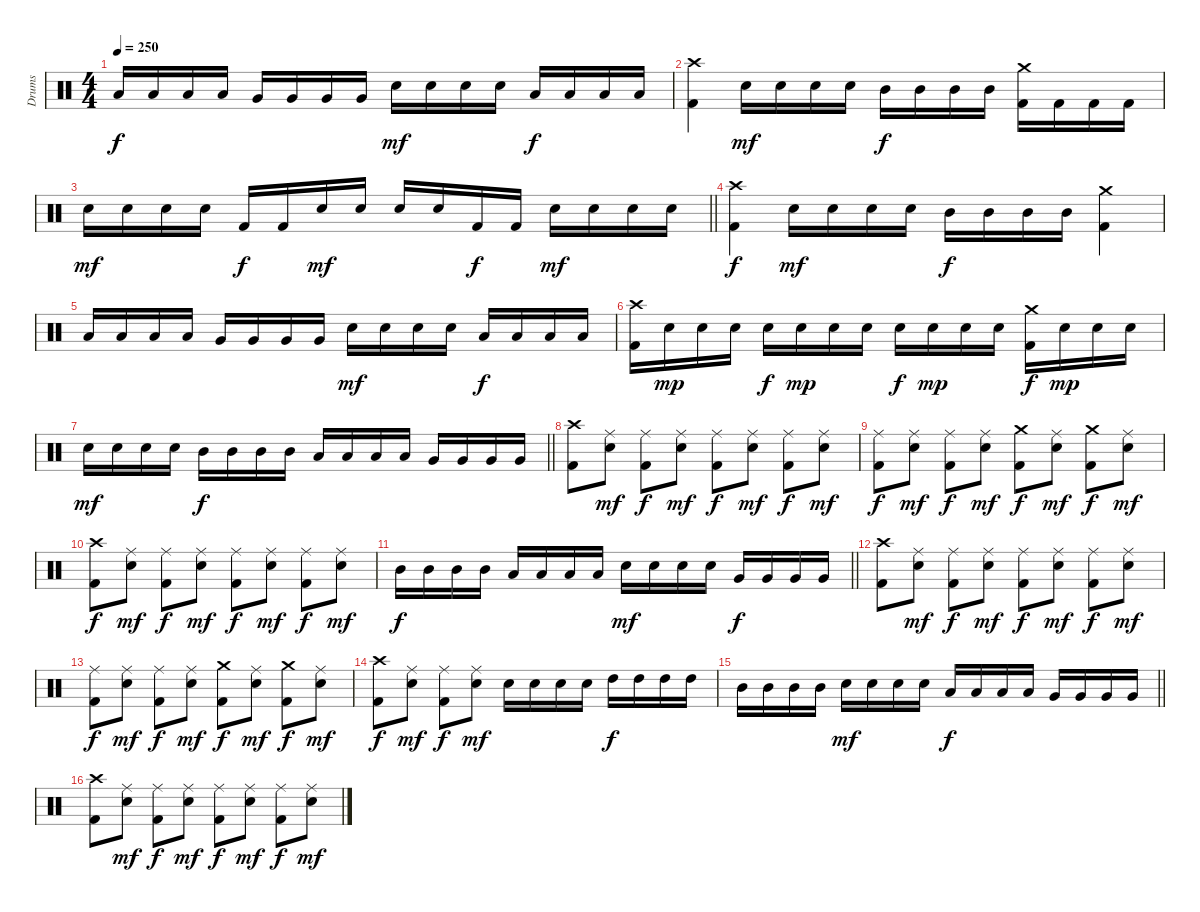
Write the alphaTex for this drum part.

\track ("Drums" "Drums") {instrument percussion}
\staff {score}
\articulation defaults
\ts (4 4)
\tempo 250
\clef neutral
\ks c "Low Tom (hit)".16{dy f} "Low Tom (hit)".16 "Low Tom (hit)".16 "Low Tom (hit)".16 "Very Low Tom (hit)".16 "Very Low Tom (hit)".16 "Very Low Tom (hit)".16 "Very Low Tom (hit)".16 "Electric Snare (hit)".16{dy mf} "Electric Snare (hit)".16 "Electric Snare (hit)".16 "Electric Snare (hit)".16 "Low Floor Tom (hit)".16{dy f} "Low Floor Tom (hit)".16 "Low Floor Tom (hit)".16 "Low Floor Tom (hit)".16
|
("Crash high (hit)" "Kick (hit) 2").4 "Electric Snare (hit)".16{dy mf} "Electric Snare (hit)".16 "Electric Snare (hit)".16 "Electric Snare (hit)".16 "Mid Tom (hit)".16{dy f} "Mid Tom (hit)".16 "Mid Tom (hit)".16 "Mid Tom (hit)".16 ("Crash medium (hit)" "Kick (hit) 2").16 "Kick (hit) 2".16 "Kick (hit) 2".16 "Kick (hit) 2".16 |
\barLineRight lightlight "Electric Snare (hit)".16{dy mf} "Electric Snare (hit)".16 "Electric Snare (hit)".16 "Electric Snare (hit)".16 "Kick (hit) 2".16{dy f} "Kick (hit) 2".16 "Electric Snare (hit)".16{dy mf} "Electric Snare (hit)".16 "Electric Snare (hit)".16 "Electric Snare (hit)".16 "Kick (hit) 2".16{dy f} "Kick (hit) 2".16 "Electric Snare (hit)".16{dy mf} "Electric Snare (hit)".16 "Electric Snare (hit)".16 "Electric Snare (hit)".16
|
("Crash high (hit)" "Kick (hit) 2").4{dy f} "Electric Snare (hit)".16{dy mf} "Electric Snare (hit)".16 "Electric Snare (hit)".16 "Electric Snare (hit)".16 "Mid Tom (hit)".16{dy f} "Mid Tom (hit)".16 "Mid Tom (hit)".16 "Mid Tom (hit)".16 ("Crash medium (hit)" "Kick (hit) 2").4 |
"Low Tom (hit)".16 "Low Tom (hit)".16 "Low Tom (hit)".16 "Low Tom (hit)".16 "Very Low Tom (hit)".16 "Very Low Tom (hit)".16 "Very Low Tom (hit)".16 "Very Low Tom (hit)".16 "Electric Snare (hit)".16{dy mf} "Electric Snare (hit)".16 "Electric Snare (hit)".16 "Electric Snare (hit)".16 "Low Floor Tom (hit)".16{dy f} "Low Floor Tom (hit)".16 "Low Floor Tom (hit)".16 "Low Floor Tom (hit)".16 |
("Crash high (hit)" "Kick (hit) 2").16 "Electric Snare (hit)".16{dy mp} "Electric Snare (hit)".16 "Electric Snare (hit)".16 "Electric Snare (hit)".16{dy f} "Electric Snare (hit)".16{dy mp} "Electric Snare (hit)".16 "Electric Snare (hit)".16 "Electric Snare (hit)".16{dy f} "Electric Snare (hit)".16{dy mp} "Electric Snare (hit)".16 "Electric Snare (hit)".16 ("Crash medium (hit)" "Kick (hit) 2").16{dy f} "Electric Snare (hit)".16{dy mp} "Electric Snare (hit)".16 "Electric Snare (hit)".16 |
\barLineRight lightlight "Electric Snare (hit)".16{dy mf} "Electric Snare (hit)".16 "Electric Snare (hit)".16 "Electric Snare (hit)".16 "Mid Tom (hit)".16{dy f} "Mid Tom (hit)".16 "Mid Tom (hit)".16 "Mid Tom (hit)".16 "Low Tom (hit)".16 "Low Tom (hit)".16 "Low Tom (hit)".16 "Low Tom (hit)".16 "Very Low Tom (hit)".16 "Very Low Tom (hit)".16 "Very Low Tom (hit)".16 "Very Low Tom (hit)".16
|
\section ("" "")
("Crash high (hit)" "Kick (hit) 2").8 ("Ride (middle)" "Electric Snare (hit)").8{dy mf} ("Ride (middle)" "Kick (hit) 2").8{dy f} ("Ride (middle)" "Electric Snare (hit)").8{dy mf} ("Ride (middle)" "Kick (hit) 2").8{dy f} ("Ride (middle)" "Electric Snare (hit)").8{dy mf} ("Ride (middle)" "Kick (hit) 2").8{dy f} ("Ride (middle)" "Electric Snare (hit)").8{dy mf} |
("Ride (middle)" "Kick (hit) 2").8{dy f} ("Ride (middle)" "Electric Snare (hit)").8{dy mf} ("Ride (middle)" "Kick (hit) 2").8{dy f} ("Ride (middle)" "Electric Snare (hit)").8{dy mf} ("Crash medium (hit)" "Kick (hit) 2").8{dy f} ("Ride (middle)" "Electric Snare (hit)").8{dy mf} ("Crash medium (hit)" "Kick (hit) 2").8{dy f} ("Ride (middle)" "Electric Snare (hit)").8{dy mf} |
("Crash high (hit)" "Kick (hit) 2").8{dy f} ("Ride (middle)" "Electric Snare (hit)").8{dy mf} ("Ride (middle)" "Kick (hit) 2").8{dy f} ("Ride (middle)" "Electric Snare (hit)").8{dy mf} ("Ride (middle)" "Kick (hit) 2").8{dy f} ("Ride (middle)" "Electric Snare (hit)").8{dy mf} ("Ride (middle)" "Kick (hit) 2").8{dy f} ("Ride (middle)" "Electric Snare (hit)").8{dy mf} |
\barLineRight lightlight "Mid Tom (hit)".16{dy f} "Mid Tom (hit)".16 "Mid Tom (hit)".16 "Mid Tom (hit)".16 "Low Tom (hit)".16 "Low Tom (hit)".16 "Low Tom (hit)".16 "Low Tom (hit)".16 "Electric Snare (hit)".16{dy mf} "Electric Snare (hit)".16 "Electric Snare (hit)".16 "Electric Snare (hit)".16 "Very Low Tom (hit)".16{dy f} "Very Low Tom (hit)".16 "Very Low Tom (hit)".16 "Very Low Tom (hit)".16
|
("Crash high (hit)" "Kick (hit) 2").8 ("Ride (middle)" "Electric Snare (hit)").8{dy mf} ("Ride (middle)" "Kick (hit) 2").8{dy f} ("Ride (middle)" "Electric Snare (hit)").8{dy mf} ("Ride (middle)" "Kick (hit) 2").8{dy f} ("Ride (middle)" "Electric Snare (hit)").8{dy mf} ("Ride (middle)" "Kick (hit) 2").8{dy f} ("Ride (middle)" "Electric Snare (hit)").8{dy mf} |
("Ride (middle)" "Kick (hit) 2").8{dy f} ("Ride (middle)" "Electric Snare (hit)").8{dy mf} ("Ride (middle)" "Kick (hit) 2").8{dy f} ("Ride (middle)" "Electric Snare (hit)").8{dy mf} ("Crash medium (hit)" "Kick (hit) 2").8{dy f} ("Ride (middle)" "Electric Snare (hit)").8{dy mf} ("Crash medium (hit)" "Kick (hit) 2").8{dy f} ("Ride (middle)" "Electric Snare (hit)").8{dy mf} |
("Crash high (hit)" "Kick (hit) 2").8{dy f} ("Ride (middle)" "Electric Snare (hit)").8{dy mf} ("Ride (middle)" "Kick (hit) 2").8{dy f} ("Ride (middle)" "Electric Snare (hit)").8{dy mf} "Electric Snare (hit)".16 "Electric Snare (hit)".16 "Electric Snare (hit)".16 "Electric Snare (hit)".16 "High Tom (hit)".16{dy f} "High Tom (hit)".16 "High Tom (hit)".16 "High Tom (hit)".16 |
\barLineRight lightlight "Mid Tom (hit)".16 "Mid Tom (hit)".16 "Mid Tom (hit)".16 "Mid Tom (hit)".16 "Electric Snare (hit)".16{dy mf} "Electric Snare (hit)".16 "Electric Snare (hit)".16 "Electric Snare (hit)".16 "Low Tom (hit)".16{dy f} "Low Tom (hit)".16 "Low Tom (hit)".16 "Low Tom (hit)".16 "Very Low Tom (hit)".16 "Very Low Tom (hit)".16 "Very Low Tom (hit)".16 "Very Low Tom (hit)".16
|
("Crash high (hit)" "Kick (hit) 2").8 ("Ride (middle)" "Electric Snare (hit)").8{dy mf} ("Ride (middle)" "Kick (hit) 2").8{dy f} ("Ride (middle)" "Electric Snare (hit)").8{dy mf} ("Ride (middle)" "Kick (hit) 2").8{dy f} ("Ride (middle)" "Electric Snare (hit)").8{dy mf} ("Ride (middle)" "Kick (hit) 2").8{dy f} ("Ride (middle)" "Electric Snare (hit)").8{dy mf}
